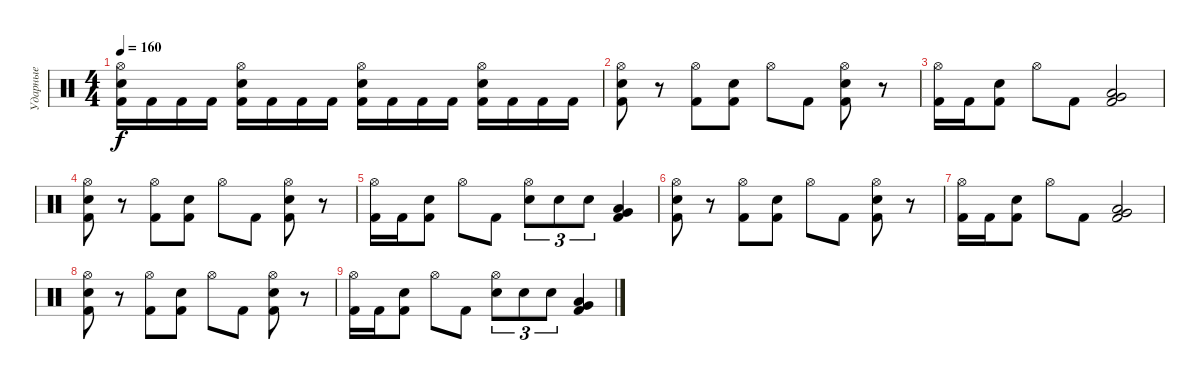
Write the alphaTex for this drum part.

\track ("Ударные" "Ударные") {instrument percussion}
\staff {score}
\articulation defaults
\ts (4 4)
\tempo 160
\clef neutral
\ks c
("Hi-Hat (open)" "Electric Snare (hit)" "Kick (hit) 2").16{dy f} "Kick (hit) 2".16 "Kick (hit) 2".16 "Kick (hit) 2".16 ("Hi-Hat (open)" "Electric Snare (hit)" "Kick (hit) 2").16 "Kick (hit) 2".16 "Kick (hit) 2".16 "Kick (hit) 2".16 ("Hi-Hat (open)" "Electric Snare (hit)" "Kick (hit) 2").16 "Kick (hit) 2".16 "Kick (hit) 2".16 "Kick (hit) 2".16 ("Hi-Hat (open)" "Electric Snare (hit)" "Kick (hit) 2").16 "Kick (hit) 2".16 "Kick (hit) 2".16 "Kick (hit) 2".16 |
("Hi-Hat (open)" "Electric Snare (hit)" "Kick (hit) 2").8 r.8 ("Hi-Hat (open)" "Kick (hit) 2").8 ("Electric Snare (hit)" "Kick (hit) 2").8 "Hi-Hat (open)".8 "Kick (hit) 2".8 ("Hi-Hat (open)" "Electric Snare (hit)" "Kick (hit) 2").8 r.8 |
("Hi-Hat (open)" "Kick (hit) 2").16 "Kick (hit) 2".16 ("Electric Snare (hit)" "Kick (hit) 2").8 "Hi-Hat (open)".8 "Kick (hit) 2".8 ("Low Tom (hit)" "Very Low Tom (hit)" "Kick (hit) 2").2 |
("Hi-Hat (open)" "Electric Snare (hit)" "Kick (hit) 2").8 r.8 ("Hi-Hat (open)" "Kick (hit) 2").8 ("Electric Snare (hit)" "Kick (hit) 2").8 "Hi-Hat (open)".8 "Kick (hit) 2".8 ("Hi-Hat (open)" "Electric Snare (hit)" "Kick (hit) 2").8 r.8 |
("Hi-Hat (open)" "Kick (hit) 2").16 "Kick (hit) 2".16 ("Electric Snare (hit)" "Kick (hit) 2").8 "Hi-Hat (open)".8 "Kick (hit) 2".8 ("Hi-Hat (open)" "Electric Snare (hit)").8{tu (3 2)} "Electric Snare (hit)".8{tu (3 2)} "Electric Snare (hit)".8{tu (3 2)} ("Low Tom (hit)" "Very Low Tom (hit)" "Kick (hit) 2").4 |
("Hi-Hat (open)" "Electric Snare (hit)" "Kick (hit) 2").8 r.8 ("Hi-Hat (open)" "Kick (hit) 2").8 ("Electric Snare (hit)" "Kick (hit) 2").8 "Hi-Hat (open)".8 "Kick (hit) 2".8 ("Hi-Hat (open)" "Electric Snare (hit)" "Kick (hit) 2").8 r.8 |
("Hi-Hat (open)" "Kick (hit) 2").16 "Kick (hit) 2".16 ("Electric Snare (hit)" "Kick (hit) 2").8 "Hi-Hat (open)".8 "Kick (hit) 2".8 ("Low Tom (hit)" "Very Low Tom (hit)" "Kick (hit) 2").2 |
("Hi-Hat (open)" "Electric Snare (hit)" "Kick (hit) 2").8 r.8 ("Hi-Hat (open)" "Kick (hit) 2").8 ("Electric Snare (hit)" "Kick (hit) 2").8 "Hi-Hat (open)".8 "Kick (hit) 2".8 ("Hi-Hat (open)" "Electric Snare (hit)" "Kick (hit) 2").8 r.8 |
("Hi-Hat (open)" "Kick (hit) 2").16 "Kick (hit) 2".16 ("Electric Snare (hit)" "Kick (hit) 2").8 "Hi-Hat (open)".8 "Kick (hit) 2".8 ("Hi-Hat (open)" "Electric Snare (hit)").8{tu (3 2)} "Electric Snare (hit)".8{tu (3 2)} "Electric Snare (hit)".8{tu (3 2)} ("Low Tom (hit)" "Very Low Tom (hit)" "Kick (hit) 2").4
